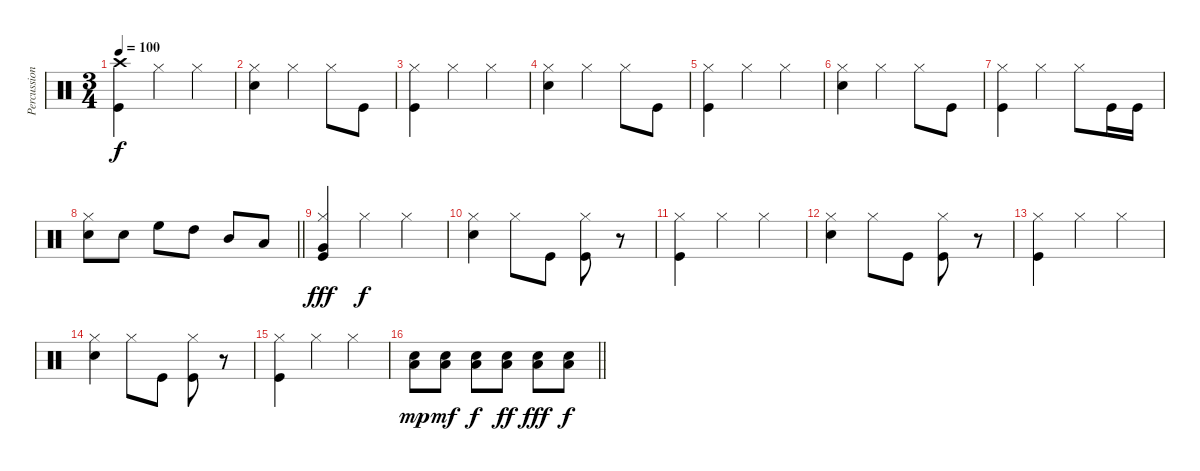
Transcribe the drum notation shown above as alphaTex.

\track ("Percussion" "Percussion") {instrument percussion}
\staff {score}
\articulation defaults
\ts (3 4)
\tempo 100
\clef neutral
\ks aminor
("Crash high (hit)" "Kick (hit)").4{dy f} "Hi-Hat (closed)".4 "Hi-Hat (closed)".4 |
("Hi-Hat (closed)" "Snare (hit) 2").4 "Hi-Hat (closed)".4 "Hi-Hat (closed)".8 "Kick (hit)".8 |
("Hi-Hat (closed)" "Kick (hit)").4 "Hi-Hat (closed)".4 "Hi-Hat (closed)".4 |
("Hi-Hat (closed)" "Snare (hit) 2").4 "Hi-Hat (closed)".4 "Hi-Hat (closed)".8 "Kick (hit)".8 |
("Hi-Hat (closed)" "Kick (hit)").4 "Hi-Hat (closed)".4 "Hi-Hat (closed)".4 |
("Hi-Hat (closed)" "Snare (hit) 2").4 "Hi-Hat (closed)".4 "Hi-Hat (closed)".8 "Kick (hit)".8 |
("Hi-Hat (closed)" "Kick (hit)").4 "Hi-Hat (closed)".4 "Hi-Hat (closed)".8 "Kick (hit)".16 "Kick (hit)".16 |
\barLineRight lightlight
("Hi-Hat (closed)" "Snare (hit) 2").8 "Snare (hit) 2".8 "High Floor Tom (hit)".8 "High Tom (hit)".8 "Mid Tom (hit)".8 "Low Tom (hit)".8 |
("Hi-Hat (closed)" "Very Low Tom (hit)" "Kick (hit)").4{dy fff} "Hi-Hat (closed)".4{dy f} "Hi-Hat (closed)".4 |
("Hi-Hat (closed)" "Snare (hit) 2").4 "Hi-Hat (closed)".8 "Kick (hit)".8 ("Hi-Hat (closed)" "Kick (hit)").8 r.8 |
("Hi-Hat (closed)" "Kick (hit)").4 "Hi-Hat (closed)".4 "Hi-Hat (closed)".4 |
("Hi-Hat (closed)" "Snare (hit) 2").4 "Hi-Hat (closed)".8 "Kick (hit)".8 ("Hi-Hat (closed)" "Kick (hit)").8 r.8 |
("Hi-Hat (closed)" "Kick (hit)").4 "Hi-Hat (closed)".4 "Hi-Hat (closed)".4 |
("Hi-Hat (closed)" "Snare (hit) 2").4 "Hi-Hat (closed)".8 "Kick (hit)".8 ("Hi-Hat (closed)" "Kick (hit)").8 r.8 |
("Hi-Hat (closed)" "Kick (hit)").4 "Hi-Hat (closed)".4 "Hi-Hat (closed)".4 |
\barLineRight lightlight
("Low Floor Tom (hit)" "Snare (hit) 2").8{dy mp} ("Low Floor Tom (hit)" "Snare (hit) 2").8{dy mf} ("Low Floor Tom (hit)" "Snare (hit) 2").8{dy f} ("Low Floor Tom (hit)" "Snare (hit) 2").8{dy ff} ("Low Floor Tom (hit)" "Snare (hit) 2").8{dy fff} ("Low Floor Tom (hit)" "Snare (hit) 2").8{dy f}
